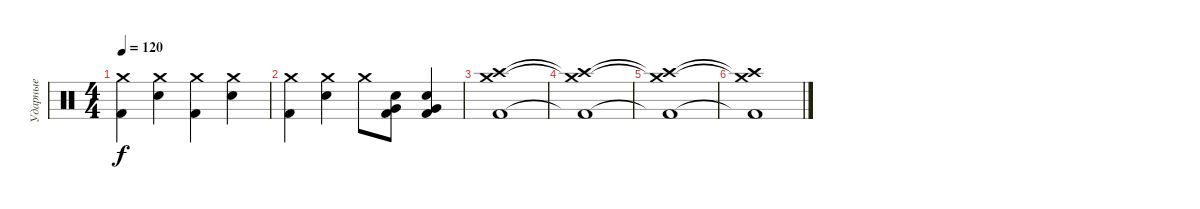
\track ("Ударные" "Ударные") {instrument percussion}
\staff {score}
\articulation defaults
\ts (4 4)
\tempo 120
\clef neutral
\ks c
("Crash medium (hit)" "Kick (hit) 2").4{dy f} ("Crash medium (hit)" "Electric Snare (hit)").4 ("Crash medium (hit)" "Kick (hit) 2").4 ("Crash medium (hit)" "Electric Snare (hit)").4 |
("Crash medium (hit)" "Kick (hit) 2").4 ("Crash medium (hit)" "Electric Snare (hit)").4 "Crash medium (hit)".8 ("Electric Snare (hit)" "Very Low Tom (hit)" "Kick (hit) 2").8 ("Electric Snare (hit)" "Very Low Tom (hit)" "Kick (hit) 2").4 |
("Crash medium (hit)" "Crash high (hit)" "Kick (hit) 2").1 |
("Crash medium (hit)"{t} "Crash high (hit)"{t} "Kick (hit) 2"{t}).1 |
("Crash medium (hit)"{t} "Crash high (hit)"{t} "Kick (hit) 2"{t}).1 |
("Crash medium (hit)"{t} "Crash high (hit)"{t} "Kick (hit) 2"{t}).1
